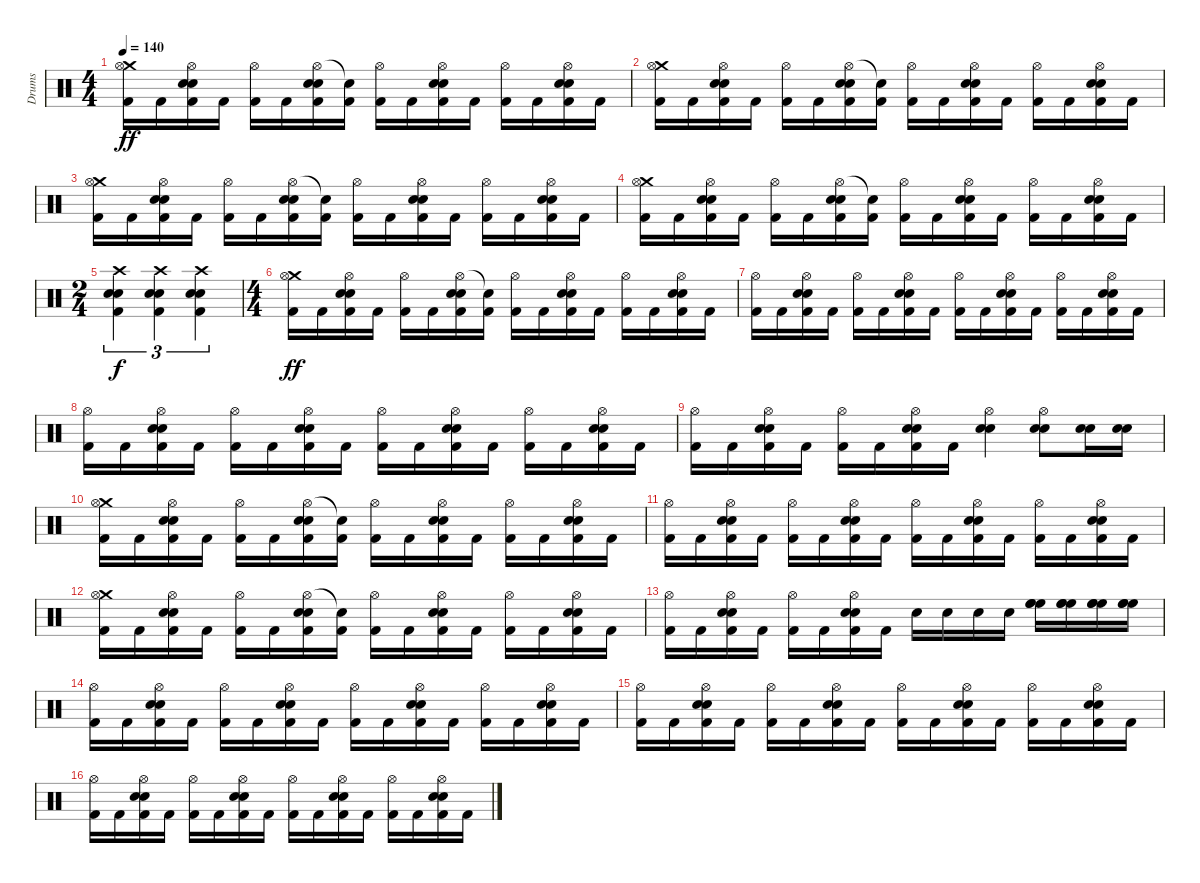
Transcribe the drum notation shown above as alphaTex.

\track ("Drums" "Drums") {instrument percussion}
\staff {score}
\articulation defaults
\ts (4 4)
\tempo 140
\clef neutral
\ks c
("Crash medium (hit)" "Hi-Hat (open)" "Kick (hit) 2").16{dy ff} "Kick (hit) 2".16 ("Hi-Hat (open)" "Electric Snare (hit)" "Electric Snare (hit)" "Kick (hit) 2").16 "Kick (hit) 2".16 ("Hi-Hat (open)" "Kick (hit) 2").16 "Kick (hit) 2".16 ("Hi-Hat (open)" "Electric Snare (hit)" "Electric Snare (hit)" "Kick (hit) 2").16 ("Snare (hit)"{t} "Kick (hit) 2").16 ("Hi-Hat (open)" "Kick (hit) 2").16 "Kick (hit) 2".16 ("Hi-Hat (open)" "Electric Snare (hit)" "Electric Snare (hit)" "Kick (hit) 2").16 "Kick (hit) 2".16 ("Hi-Hat (open)" "Kick (hit) 2").16 "Kick (hit) 2".16 ("Hi-Hat (open)" "Electric Snare (hit)" "Electric Snare (hit)" "Kick (hit) 2").16 "Kick (hit) 2".16 |
("Crash medium (hit)" "Hi-Hat (open)" "Kick (hit) 2").16 "Kick (hit) 2".16 ("Hi-Hat (open)" "Electric Snare (hit)" "Electric Snare (hit)" "Kick (hit) 2").16 "Kick (hit) 2".16 ("Hi-Hat (open)" "Kick (hit) 2").16 "Kick (hit) 2".16 ("Hi-Hat (open)" "Electric Snare (hit)" "Electric Snare (hit)" "Kick (hit) 2").16 ("Snare (hit)"{t} "Kick (hit) 2").16 ("Hi-Hat (open)" "Kick (hit) 2").16 "Kick (hit) 2".16 ("Hi-Hat (open)" "Electric Snare (hit)" "Electric Snare (hit)" "Kick (hit) 2").16 "Kick (hit) 2".16 ("Hi-Hat (open)" "Kick (hit) 2").16 "Kick (hit) 2".16 ("Hi-Hat (open)" "Electric Snare (hit)" "Electric Snare (hit)" "Kick (hit) 2").16 "Kick (hit) 2".16 |
("Crash medium (hit)" "Hi-Hat (open)" "Kick (hit) 2").16 "Kick (hit) 2".16 ("Hi-Hat (open)" "Electric Snare (hit)" "Electric Snare (hit)" "Kick (hit) 2").16 "Kick (hit) 2".16 ("Hi-Hat (open)" "Kick (hit) 2").16 "Kick (hit) 2".16 ("Hi-Hat (open)" "Electric Snare (hit)" "Electric Snare (hit)" "Kick (hit) 2").16 ("Snare (hit)"{t} "Kick (hit) 2").16 ("Hi-Hat (open)" "Kick (hit) 2").16 "Kick (hit) 2".16 ("Hi-Hat (open)" "Electric Snare (hit)" "Electric Snare (hit)" "Kick (hit) 2").16 "Kick (hit) 2".16 ("Hi-Hat (open)" "Kick (hit) 2").16 "Kick (hit) 2".16 ("Hi-Hat (open)" "Electric Snare (hit)" "Electric Snare (hit)" "Kick (hit) 2").16 "Kick (hit) 2".16 |
("Crash medium (hit)" "Hi-Hat (open)" "Kick (hit) 2").16 "Kick (hit) 2".16 ("Hi-Hat (open)" "Electric Snare (hit)" "Electric Snare (hit)" "Kick (hit) 2").16 "Kick (hit) 2".16 ("Hi-Hat (open)" "Kick (hit) 2").16 "Kick (hit) 2".16 ("Hi-Hat (open)" "Electric Snare (hit)" "Electric Snare (hit)" "Kick (hit) 2").16 ("Snare (hit)"{t} "Kick (hit) 2").16 ("Hi-Hat (open)" "Kick (hit) 2").16 "Kick (hit) 2".16 ("Hi-Hat (open)" "Electric Snare (hit)" "Electric Snare (hit)" "Kick (hit) 2").16 "Kick (hit) 2".16 ("Hi-Hat (open)" "Kick (hit) 2").16 "Kick (hit) 2".16 ("Hi-Hat (open)" "Electric Snare (hit)" "Electric Snare (hit)" "Kick (hit) 2").16 "Kick (hit) 2".16 |
\ts (2 4)
("Crash high (hit)" "Electric Snare (hit)" "Electric Snare (hit)" "Kick (hit) 2").4{tu (3 2) dy f} ("Crash high (hit)" "Electric Snare (hit)" "Electric Snare (hit)" "Kick (hit) 2").4{tu (3 2)} ("Crash high (hit)" "Electric Snare (hit)" "Electric Snare (hit)" "Kick (hit) 2").4{tu (3 2)} |
\ts (4 4)
("Crash medium (hit)" "Hi-Hat (open)" "Kick (hit) 2").16{dy ff} "Kick (hit) 2".16 ("Hi-Hat (open)" "Electric Snare (hit)" "Electric Snare (hit)" "Kick (hit) 2").16 "Kick (hit) 2".16 ("Hi-Hat (open)" "Kick (hit) 2").16 "Kick (hit) 2".16 ("Hi-Hat (open)" "Electric Snare (hit)" "Electric Snare (hit)" "Kick (hit) 2").16 ("Snare (hit)"{t} "Kick (hit) 2").16 ("Hi-Hat (open)" "Kick (hit) 2").16 "Kick (hit) 2".16 ("Hi-Hat (open)" "Electric Snare (hit)" "Electric Snare (hit)" "Kick (hit) 2").16 "Kick (hit) 2".16 ("Hi-Hat (open)" "Kick (hit) 2").16 "Kick (hit) 2".16 ("Hi-Hat (open)" "Electric Snare (hit)" "Electric Snare (hit)" "Kick (hit) 2").16 "Kick (hit) 2".16 |
("Hi-Hat (open)" "Kick (hit) 2").16 "Kick (hit) 2".16 ("Hi-Hat (open)" "Electric Snare (hit)" "Electric Snare (hit)" "Kick (hit) 2").16 "Kick (hit) 2".16 ("Hi-Hat (open)" "Kick (hit) 2").16 "Kick (hit) 2".16 ("Hi-Hat (open)" "Electric Snare (hit)" "Electric Snare (hit)" "Kick (hit) 2").16 "Kick (hit) 2".16 ("Hi-Hat (open)" "Kick (hit) 2").16 "Kick (hit) 2".16 ("Hi-Hat (open)" "Electric Snare (hit)" "Electric Snare (hit)" "Kick (hit) 2").16 "Kick (hit) 2".16 ("Hi-Hat (open)" "Kick (hit) 2").16 "Kick (hit) 2".16 ("Hi-Hat (open)" "Electric Snare (hit)" "Electric Snare (hit)" "Kick (hit) 2").16 "Kick (hit) 2".16 |
("Hi-Hat (open)" "Kick (hit) 2").16 "Kick (hit) 2".16 ("Hi-Hat (open)" "Electric Snare (hit)" "Electric Snare (hit)" "Kick (hit) 2").16 "Kick (hit) 2".16 ("Hi-Hat (open)" "Kick (hit) 2").16 "Kick (hit) 2".16 ("Hi-Hat (open)" "Electric Snare (hit)" "Electric Snare (hit)" "Kick (hit) 2").16 "Kick (hit) 2".16 ("Hi-Hat (open)" "Kick (hit) 2").16 "Kick (hit) 2".16 ("Hi-Hat (open)" "Electric Snare (hit)" "Electric Snare (hit)" "Kick (hit) 2").16 "Kick (hit) 2".16 ("Hi-Hat (open)" "Kick (hit) 2").16 "Kick (hit) 2".16 ("Hi-Hat (open)" "Electric Snare (hit)" "Electric Snare (hit)" "Kick (hit) 2").16 "Kick (hit) 2".16 |
("Hi-Hat (open)" "Kick (hit) 2").16 "Kick (hit) 2".16 ("Hi-Hat (open)" "Electric Snare (hit)" "Electric Snare (hit)" "Kick (hit) 2").16 "Kick (hit) 2".16 ("Hi-Hat (open)" "Kick (hit) 2").16 "Kick (hit) 2".16 ("Hi-Hat (open)" "Electric Snare (hit)" "Electric Snare (hit)" "Kick (hit) 2").16 "Kick (hit) 2".16 ("Hi-Hat (open)" "Electric Snare (hit)" "Electric Snare (hit)").4 ("Hi-Hat (open)" "Electric Snare (hit)" "Electric Snare (hit)").8 ("Electric Snare (hit)" "Electric Snare (hit)").16 ("Electric Snare (hit)" "Electric Snare (hit)").16 |
("Crash medium (hit)" "Hi-Hat (open)" "Kick (hit) 2").16 "Kick (hit) 2".16 ("Hi-Hat (open)" "Electric Snare (hit)" "Electric Snare (hit)" "Kick (hit) 2").16 "Kick (hit) 2".16 ("Hi-Hat (open)" "Kick (hit) 2").16 "Kick (hit) 2".16 ("Hi-Hat (open)" "Electric Snare (hit)" "Electric Snare (hit)" "Kick (hit) 2").16 ("Snare (hit)"{t} "Kick (hit) 2").16 ("Hi-Hat (open)" "Kick (hit) 2").16 "Kick (hit) 2".16 ("Hi-Hat (open)" "Electric Snare (hit)" "Electric Snare (hit)" "Kick (hit) 2").16 "Kick (hit) 2".16 ("Hi-Hat (open)" "Kick (hit) 2").16 "Kick (hit) 2".16 ("Hi-Hat (open)" "Electric Snare (hit)" "Electric Snare (hit)" "Kick (hit) 2").16 "Kick (hit) 2".16 |
("Hi-Hat (open)" "Kick (hit) 2").16 "Kick (hit) 2".16 ("Hi-Hat (open)" "Electric Snare (hit)" "Electric Snare (hit)" "Kick (hit) 2").16 "Kick (hit) 2".16 ("Hi-Hat (open)" "Kick (hit) 2").16 "Kick (hit) 2".16 ("Hi-Hat (open)" "Electric Snare (hit)" "Electric Snare (hit)" "Kick (hit) 2").16 "Kick (hit) 2".16 ("Hi-Hat (open)" "Kick (hit) 2").16 "Kick (hit) 2".16 ("Hi-Hat (open)" "Electric Snare (hit)" "Electric Snare (hit)" "Kick (hit) 2").16 "Kick (hit) 2".16 ("Hi-Hat (open)" "Kick (hit) 2").16 "Kick (hit) 2".16 ("Hi-Hat (open)" "Electric Snare (hit)" "Electric Snare (hit)" "Kick (hit) 2").16 "Kick (hit) 2".16 |
("Crash medium (hit)" "Hi-Hat (open)" "Kick (hit) 2").16 "Kick (hit) 2".16 ("Hi-Hat (open)" "Electric Snare (hit)" "Electric Snare (hit)" "Kick (hit) 2").16 "Kick (hit) 2".16 ("Hi-Hat (open)" "Kick (hit) 2").16 "Kick (hit) 2".16 ("Hi-Hat (open)" "Electric Snare (hit)" "Electric Snare (hit)" "Kick (hit) 2").16 ("Snare (hit)"{t} "Kick (hit) 2").16 ("Hi-Hat (open)" "Kick (hit) 2").16 "Kick (hit) 2".16 ("Hi-Hat (open)" "Electric Snare (hit)" "Electric Snare (hit)" "Kick (hit) 2").16 "Kick (hit) 2".16 ("Hi-Hat (open)" "Kick (hit) 2").16 "Kick (hit) 2".16 ("Hi-Hat (open)" "Electric Snare (hit)" "Electric Snare (hit)" "Kick (hit) 2").16 "Kick (hit) 2".16 |
("Hi-Hat (open)" "Kick (hit) 2").16 "Kick (hit) 2".16 ("Hi-Hat (open)" "Electric Snare (hit)" "Electric Snare (hit)" "Kick (hit) 2").16 "Kick (hit) 2".16 ("Hi-Hat (open)" "Kick (hit) 2").16 "Kick (hit) 2".16 ("Hi-Hat (open)" "Electric Snare (hit)" "Electric Snare (hit)" "Kick (hit) 2").16 "Kick (hit) 2".16 "Electric Snare (hit)".16 "Electric Snare (hit)".16 "Electric Snare (hit)".16 "Electric Snare (hit)".16 ("High Floor Tom (hit)" "High Floor Tom (hit)" "High Floor Tom (hit)").16 ("High Floor Tom (hit)" "High Floor Tom (hit)" "High Floor Tom (hit)").16 ("High Floor Tom (hit)" "High Floor Tom (hit)" "High Floor Tom (hit)").16 ("High Floor Tom (hit)" "High Floor Tom (hit)" "High Floor Tom (hit)").16 |
("Hi-Hat (open)" "Kick (hit) 2").16 "Kick (hit) 2".16 ("Hi-Hat (open)" "Electric Snare (hit)" "Electric Snare (hit)" "Kick (hit) 2").16 "Kick (hit) 2".16 ("Hi-Hat (open)" "Kick (hit) 2").16 "Kick (hit) 2".16 ("Hi-Hat (open)" "Electric Snare (hit)" "Electric Snare (hit)" "Kick (hit) 2").16 "Kick (hit) 2".16 ("Hi-Hat (open)" "Kick (hit) 2").16 "Kick (hit) 2".16 ("Hi-Hat (open)" "Electric Snare (hit)" "Electric Snare (hit)" "Kick (hit) 2").16 "Kick (hit) 2".16 ("Hi-Hat (open)" "Kick (hit) 2").16 "Kick (hit) 2".16 ("Hi-Hat (open)" "Electric Snare (hit)" "Electric Snare (hit)" "Kick (hit) 2").16 "Kick (hit) 2".16 |
("Hi-Hat (open)" "Kick (hit) 2").16 "Kick (hit) 2".16 ("Hi-Hat (open)" "Electric Snare (hit)" "Electric Snare (hit)" "Kick (hit) 2").16 "Kick (hit) 2".16 ("Hi-Hat (open)" "Kick (hit) 2").16 "Kick (hit) 2".16 ("Hi-Hat (open)" "Electric Snare (hit)" "Electric Snare (hit)" "Kick (hit) 2").16 "Kick (hit) 2".16 ("Hi-Hat (open)" "Kick (hit) 2").16 "Kick (hit) 2".16 ("Hi-Hat (open)" "Electric Snare (hit)" "Electric Snare (hit)" "Kick (hit) 2").16 "Kick (hit) 2".16 ("Hi-Hat (open)" "Kick (hit) 2").16 "Kick (hit) 2".16 ("Hi-Hat (open)" "Electric Snare (hit)" "Electric Snare (hit)" "Kick (hit) 2").16 "Kick (hit) 2".16 |
("Hi-Hat (open)" "Kick (hit) 2").16 "Kick (hit) 2".16 ("Hi-Hat (open)" "Electric Snare (hit)" "Electric Snare (hit)" "Kick (hit) 2").16 "Kick (hit) 2".16 ("Hi-Hat (open)" "Kick (hit) 2").16 "Kick (hit) 2".16 ("Hi-Hat (open)" "Electric Snare (hit)" "Electric Snare (hit)" "Kick (hit) 2").16 "Kick (hit) 2".16 ("Hi-Hat (open)" "Kick (hit) 2").16 "Kick (hit) 2".16 ("Hi-Hat (open)" "Electric Snare (hit)" "Electric Snare (hit)" "Kick (hit) 2").16 "Kick (hit) 2".16 ("Hi-Hat (open)" "Kick (hit) 2").16 "Kick (hit) 2".16 ("Hi-Hat (open)" "Electric Snare (hit)" "Electric Snare (hit)" "Kick (hit) 2").16 "Kick (hit) 2".16
